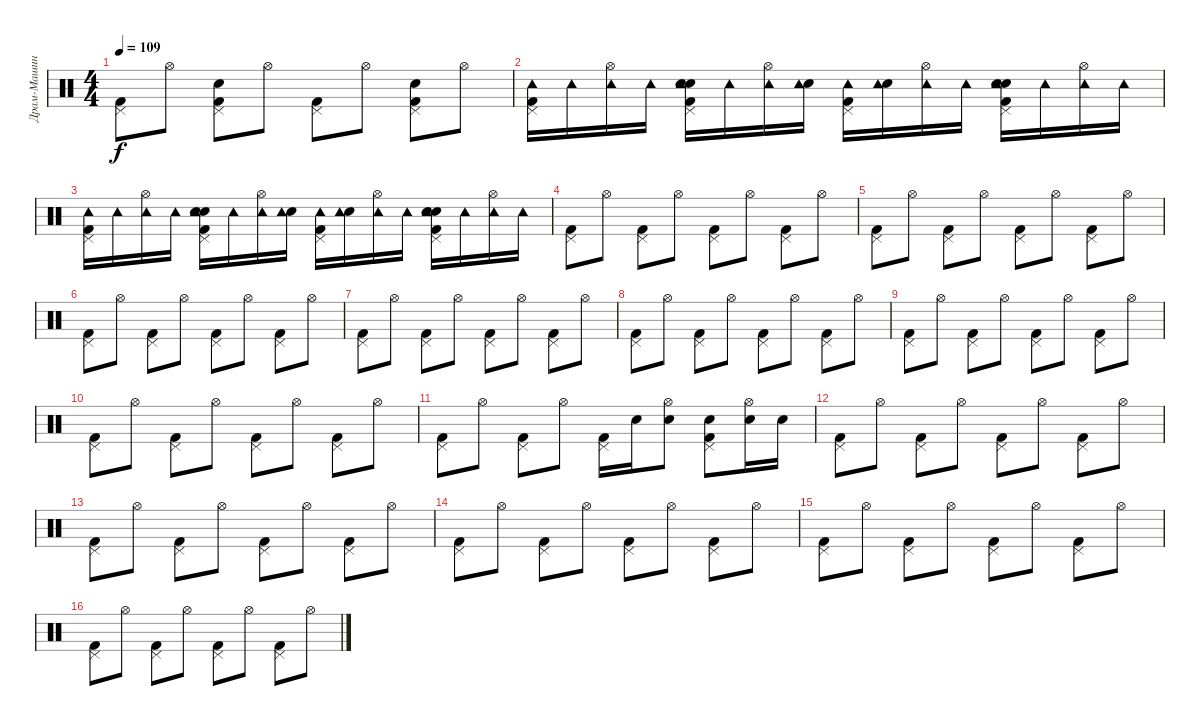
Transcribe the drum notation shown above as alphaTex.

\track ("Драм-Машина" "Драм-Машин") {instrument percussion}
\staff {score}
\articulation defaults
\ts (4 4)
\tempo 109
\clef neutral
\ks c
("Pedal Hi-Hat (hit)" "Kick (hit) 2").8{dy f} "Hi-Hat (open)".8 ("Kick (hit) 2" "Pedal Hi-Hat (hit)" "Snare (hit) 2").8 "Hi-Hat (open)".8 ("Kick (hit) 2" "Pedal Hi-Hat (hit)").8 "Hi-Hat (open)".8 ("Kick (hit) 2" "Snare (hit) 2" "Pedal Hi-Hat (hit)").8 "Hi-Hat (open)".8 |
("Tambourine (hit)" "Kick (hit) 2" "Pedal Hi-Hat (hit)").16 "Tambourine (hit)".16 ("Tambourine (hit)" "Hi-Hat (open)").16 "Tambourine (hit)".16 ("Kick (hit) 2" "Pedal Hi-Hat (hit)" "Snare (hit) 2" "Tambourine (hit)" "Electric Snare (hit)").16 "Tambourine (hit)".16 ("Hi-Hat (open)" "Tambourine (hit)").16 ("Electric Snare (hit)" "Tambourine (hit)").16 ("Tambourine (hit)" "Kick (hit) 2" "Pedal Hi-Hat (hit)").16 ("Electric Snare (hit)" "Tambourine (hit)").16 ("Hi-Hat (open)" "Tambourine (hit)").16 "Tambourine (hit)".16 ("Electric Snare (hit)" "Pedal Hi-Hat (hit)" "Tambourine (hit)" "Snare (hit) 2" "Kick (hit) 2").16 "Tambourine (hit)".16 ("Tambourine (hit)" "Hi-Hat (open)").16 "Tambourine (hit)".16 |
("Kick (hit) 2" "Tambourine (hit)" "Pedal Hi-Hat (hit)").16 "Tambourine (hit)".16 ("Tambourine (hit)" "Hi-Hat (open)").16 "Tambourine (hit)".16 ("Snare (hit) 2" "Kick (hit) 2" "Electric Snare (hit)" "Tambourine (hit)" "Pedal Hi-Hat (hit)").16 "Tambourine (hit)".16 ("Tambourine (hit)" "Hi-Hat (open)").16 ("Electric Snare (hit)" "Tambourine (hit)").16 ("Tambourine (hit)" "Pedal Hi-Hat (hit)" "Kick (hit) 2").16 ("Electric Snare (hit)" "Tambourine (hit)").16 ("Tambourine (hit)" "Hi-Hat (open)").16 "Tambourine (hit)".16 ("Electric Snare (hit)" "Tambourine (hit)" "Snare (hit) 2" "Pedal Hi-Hat (hit)" "Kick (hit) 2").16 "Tambourine (hit)".16 ("Hi-Hat (open)" "Tambourine (hit)").16 "Tambourine (hit)".16 |
("Kick (hit) 2" "Pedal Hi-Hat (hit)").8 "Hi-Hat (open)".8 ("Kick (hit) 2" "Pedal Hi-Hat (hit)").8 "Hi-Hat (open)".8 ("Kick (hit) 2" "Pedal Hi-Hat (hit)").8 "Hi-Hat (open)".8 ("Pedal Hi-Hat (hit)" "Kick (hit) 2").8 "Hi-Hat (open)".8 |
("Kick (hit) 2" "Pedal Hi-Hat (hit)").8 "Hi-Hat (open)".8 ("Kick (hit) 2" "Pedal Hi-Hat (hit)").8 "Hi-Hat (open)".8 ("Pedal Hi-Hat (hit)" "Kick (hit) 2").8 "Hi-Hat (open)".8 ("Pedal Hi-Hat (hit)" "Kick (hit) 2").8 "Hi-Hat (open)".8 |
("Kick (hit) 2" "Pedal Hi-Hat (hit)").8 "Hi-Hat (open)".8 ("Pedal Hi-Hat (hit)" "Kick (hit) 2").8 "Hi-Hat (open)".8 ("Kick (hit) 2" "Pedal Hi-Hat (hit)").8 "Hi-Hat (open)".8 ("Pedal Hi-Hat (hit)" "Kick (hit) 2").8 "Hi-Hat (open)".8 |
("Pedal Hi-Hat (hit)" "Kick (hit) 2").8 "Hi-Hat (open)".8 ("Pedal Hi-Hat (hit)" "Kick (hit) 2").8 "Hi-Hat (open)".8 ("Kick (hit) 2" "Pedal Hi-Hat (hit)").8 "Hi-Hat (open)".8 ("Pedal Hi-Hat (hit)" "Kick (hit) 2").8 "Hi-Hat (open)".8 |
("Pedal Hi-Hat (hit)" "Kick (hit) 2").8 "Hi-Hat (open)".8 ("Kick (hit) 2" "Pedal Hi-Hat (hit)").8 "Hi-Hat (open)".8 ("Pedal Hi-Hat (hit)" "Kick (hit) 2").8 "Hi-Hat (open)".8 ("Kick (hit) 2" "Pedal Hi-Hat (hit)").8 "Hi-Hat (open)".8 |
("Pedal Hi-Hat (hit)" "Kick (hit) 2").8 "Hi-Hat (open)".8 ("Pedal Hi-Hat (hit)" "Kick (hit) 2").8 "Hi-Hat (open)".8 ("Kick (hit) 2" "Pedal Hi-Hat (hit)").8 "Hi-Hat (open)".8 ("Kick (hit) 2" "Pedal Hi-Hat (hit)").8 "Hi-Hat (open)".8 |
("Kick (hit) 2" "Pedal Hi-Hat (hit)").8 "Hi-Hat (open)".8 ("Pedal Hi-Hat (hit)" "Kick (hit) 2").8 "Hi-Hat (open)".8 ("Kick (hit) 2" "Pedal Hi-Hat (hit)").8 "Hi-Hat (open)".8 ("Pedal Hi-Hat (hit)" "Kick (hit) 2").8 "Hi-Hat (open)".8 |
("Kick (hit) 2" "Pedal Hi-Hat (hit)").8 "Hi-Hat (open)".8 ("Kick (hit) 2" "Pedal Hi-Hat (hit)").8 "Hi-Hat (open)".8 ("Kick (hit) 2" "Pedal Hi-Hat (hit)").16 "Snare (hit) 2".16 ("Snare (hit) 2" "Hi-Hat (open)").8 ("Snare (hit) 2" "Kick (hit) 2" "Pedal Hi-Hat (hit)").8 ("Hi-Hat (open)" "Snare (hit) 2").16 "Snare (hit) 2".16 |
("Kick (hit) 2" "Pedal Hi-Hat (hit)").8 "Hi-Hat (open)".8 ("Pedal Hi-Hat (hit)" "Kick (hit) 2").8 "Hi-Hat (open)".8 ("Pedal Hi-Hat (hit)" "Kick (hit) 2").8 "Hi-Hat (open)".8 ("Kick (hit) 2" "Pedal Hi-Hat (hit)").8 "Hi-Hat (open)".8 |
("Kick (hit) 2" "Pedal Hi-Hat (hit)").8 "Hi-Hat (open)".8 ("Kick (hit) 2" "Pedal Hi-Hat (hit)").8 "Hi-Hat (open)".8 ("Pedal Hi-Hat (hit)" "Kick (hit) 2").8 "Hi-Hat (open)".8 ("Kick (hit) 2" "Pedal Hi-Hat (hit)").8 "Hi-Hat (open)".8 |
("Pedal Hi-Hat (hit)" "Kick (hit) 2").8 "Hi-Hat (open)".8 ("Kick (hit) 2" "Pedal Hi-Hat (hit)").8 "Hi-Hat (open)".8 ("Pedal Hi-Hat (hit)" "Kick (hit) 2").8 "Hi-Hat (open)".8 ("Kick (hit) 2" "Pedal Hi-Hat (hit)").8 "Hi-Hat (open)".8 |
("Kick (hit) 2" "Pedal Hi-Hat (hit)").8 "Hi-Hat (open)".8 ("Kick (hit) 2" "Pedal Hi-Hat (hit)").8 "Hi-Hat (open)".8 ("Pedal Hi-Hat (hit)" "Kick (hit) 2").8 "Hi-Hat (open)".8 ("Pedal Hi-Hat (hit)" "Kick (hit) 2").8 "Hi-Hat (open)".8 |
("Pedal Hi-Hat (hit)" "Kick (hit) 2").8 "Hi-Hat (open)".8 ("Kick (hit) 2" "Pedal Hi-Hat (hit)").8 "Hi-Hat (open)".8 ("Pedal Hi-Hat (hit)" "Kick (hit) 2").8 "Hi-Hat (open)".8 ("Kick (hit) 2" "Pedal Hi-Hat (hit)").8 "Hi-Hat (open)".8
